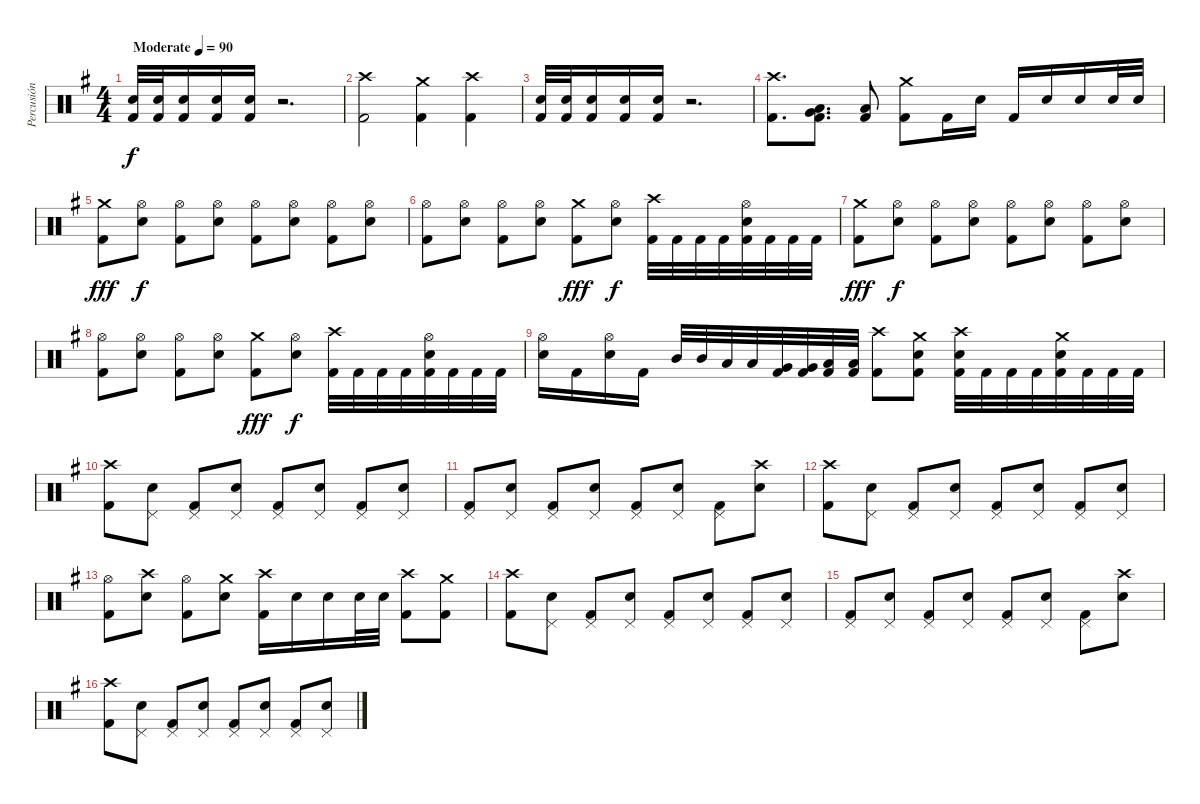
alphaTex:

\track ("Percusión" "Percusión") {instrument percussion}
\staff {score}
\articulation defaults
\ts (4 4)
\tempo (90 "Moderate")
\clef neutral
\ks g
("Electric Snare (hit)" "Kick (hit) 2").32{dy f} ("Electric Snare (hit)" "Kick (hit) 2").32 ("Electric Snare (hit)" "Kick (hit) 2").16 ("Electric Snare (hit)" "Kick (hit) 2").16 ("Electric Snare (hit)" "Kick (hit) 2").16 r.2{d} |
("Crash high (hit)" "Kick (hit) 2").2 ("Crash medium (hit)" "Kick (hit) 2").4 ("Crash high (hit)" "Kick (hit) 2").4 |
("Electric Snare (hit)" "Kick (hit) 2").32 ("Electric Snare (hit)" "Kick (hit) 2").32 ("Electric Snare (hit)" "Kick (hit) 2").16 ("Electric Snare (hit)" "Kick (hit) 2").16 ("Electric Snare (hit)" "Kick (hit) 2").16 r.2{d} |
("Crash high (hit)" "Kick (hit) 2").8{d} ("Very Low Tom (hit)" "Low Floor Tom (hit)" "Kick (hit) 2").8{d} ("Low Floor Tom (hit)" "Kick (hit) 2").8 ("Crash medium (hit)" "Kick (hit) 2").8 "Kick (hit) 2".16 "Electric Snare (hit)".16 "Kick (hit) 2".16 "Electric Snare (hit)".16 "Electric Snare (hit)".16 "Electric Snare (hit)".32 "Electric Snare (hit)".32 |
("Crash medium (hit)" "Kick (hit) 2").8{dy fff} ("Hi-Hat (open)" "Electric Snare (hit)").8{dy f} ("Hi-Hat (open)" "Kick (hit) 2").8 ("Hi-Hat (open)" "Electric Snare (hit)").8 ("Hi-Hat (open)" "Kick (hit) 2").8 ("Hi-Hat (open)" "Electric Snare (hit)").8 ("Hi-Hat (open)" "Kick (hit) 2").8 ("Hi-Hat (open)" "Electric Snare (hit)").8 |
("Hi-Hat (open)" "Kick (hit) 2").8 ("Hi-Hat (open)" "Electric Snare (hit)").8 ("Hi-Hat (open)" "Kick (hit) 2").8 ("Hi-Hat (open)" "Electric Snare (hit)").8 ("Crash medium (hit)" "Kick (hit) 2").8{dy fff} ("Hi-Hat (open)" "Electric Snare (hit)").8{dy f} ("Crash high (hit)" "Kick (hit) 2").32 "Kick (hit) 2".32 "Kick (hit) 2".32 "Kick (hit) 2".32 ("Hi-Hat (open)" "Electric Snare (hit)" "Kick (hit) 2").32 "Kick (hit) 2".32 "Kick (hit) 2".32 "Kick (hit) 2".32 |
("Crash medium (hit)" "Kick (hit) 2").8{dy fff} ("Hi-Hat (open)" "Electric Snare (hit)").8{dy f} ("Hi-Hat (open)" "Kick (hit) 2").8 ("Hi-Hat (open)" "Electric Snare (hit)").8 ("Hi-Hat (open)" "Kick (hit) 2").8 ("Hi-Hat (open)" "Electric Snare (hit)").8 ("Hi-Hat (open)" "Kick (hit) 2").8 ("Hi-Hat (open)" "Electric Snare (hit)").8 |
("Hi-Hat (open)" "Kick (hit) 2").8 ("Hi-Hat (open)" "Electric Snare (hit)").8 ("Hi-Hat (open)" "Kick (hit) 2").8 ("Hi-Hat (open)" "Electric Snare (hit)").8 ("Crash medium (hit)" "Kick (hit) 2").8{dy fff} ("Hi-Hat (open)" "Electric Snare (hit)").8{dy f} ("Crash high (hit)" "Kick (hit) 2").32 "Kick (hit) 2".32 "Kick (hit) 2".32 "Kick (hit) 2".32 ("Hi-Hat (open)" "Electric Snare (hit)" "Kick (hit) 2").32 "Kick (hit) 2".32 "Kick (hit) 2".32 "Kick (hit) 2".32 |
("Hi-Hat (open)" "Electric Snare (hit)").16 "Kick (hit) 2".16 ("Hi-Hat (open)" "Electric Snare (hit)").16 "Kick (hit) 2".16 "Mid Tom (hit)".32 "Mid Tom (hit)".32 "Low Tom (hit)".32 "Low Tom (hit)".32 ("Very Low Tom (hit)" "Kick (hit) 2").32 ("Very Low Tom (hit)" "Kick (hit) 2").32 ("Low Floor Tom (hit)" "Kick (hit) 2").32 ("Low Floor Tom (hit)" "Kick (hit) 2").32 ("Crash high (hit)" "Kick (hit) 2").8 ("Crash medium (hit)" "Electric Snare (hit)" "Kick (hit) 2").8 ("Crash high (hit)" "Electric Snare (hit)" "Kick (hit) 2").32 "Kick (hit) 2".32 "Kick (hit) 2".32 "Kick (hit) 2".32 ("Crash medium (hit)" "Electric Snare (hit)" "Kick (hit) 2").32 "Kick (hit) 2".32 "Kick (hit) 2".32 "Kick (hit) 2".32 |
("Crash high (hit)" "Kick (hit) 2").8 ("Pedal Hi-Hat (hit)" "Electric Snare (hit)").8 ("Pedal Hi-Hat (hit)" "Kick (hit) 2").8 ("Pedal Hi-Hat (hit)" "Electric Snare (hit)").8 ("Pedal Hi-Hat (hit)" "Kick (hit) 2").8 ("Pedal Hi-Hat (hit)" "Electric Snare (hit)").8 ("Pedal Hi-Hat (hit)" "Kick (hit) 2").8 ("Pedal Hi-Hat (hit)" "Electric Snare (hit)").8 |
("Pedal Hi-Hat (hit)" "Kick (hit) 2").8 ("Pedal Hi-Hat (hit)" "Electric Snare (hit)").8 ("Pedal Hi-Hat (hit)" "Kick (hit) 2").8 ("Pedal Hi-Hat (hit)" "Electric Snare (hit)").8 ("Pedal Hi-Hat (hit)" "Kick (hit) 2").8 ("Pedal Hi-Hat (hit)" "Electric Snare (hit)").8 ("Pedal Hi-Hat (hit)" "Kick (hit) 2").8 ("Crash high (hit)" "Electric Snare (hit)").8 |
("Crash high (hit)" "Kick (hit) 2").8 ("Pedal Hi-Hat (hit)" "Electric Snare (hit)").8 ("Pedal Hi-Hat (hit)" "Kick (hit) 2").8 ("Pedal Hi-Hat (hit)" "Electric Snare (hit)").8 ("Pedal Hi-Hat (hit)" "Kick (hit) 2").8 ("Pedal Hi-Hat (hit)" "Electric Snare (hit)").8 ("Pedal Hi-Hat (hit)" "Kick (hit) 2").8 ("Pedal Hi-Hat (hit)" "Electric Snare (hit)").8 |
("Hi-Hat (open)" "Kick (hit) 2").8 ("Crash high (hit)" "Electric Snare (hit)").8 ("Hi-Hat (open)" "Kick (hit) 2").8 ("Crash medium (hit)" "Electric Snare (hit)").8 ("Crash high (hit)" "Kick (hit) 2").16 "Electric Snare (hit)".16 "Electric Snare (hit)".16 "Electric Snare (hit)".32 "Electric Snare (hit)".32 ("Crash high (hit)" "Kick (hit) 2").8 ("Crash medium (hit)" "Kick (hit) 2").8 |
("Crash high (hit)" "Kick (hit) 2").8 ("Pedal Hi-Hat (hit)" "Electric Snare (hit)").8 ("Pedal Hi-Hat (hit)" "Kick (hit) 2").8 ("Pedal Hi-Hat (hit)" "Electric Snare (hit)").8 ("Pedal Hi-Hat (hit)" "Kick (hit) 2").8 ("Pedal Hi-Hat (hit)" "Electric Snare (hit)").8 ("Pedal Hi-Hat (hit)" "Kick (hit) 2").8 ("Pedal Hi-Hat (hit)" "Electric Snare (hit)").8 |
("Pedal Hi-Hat (hit)" "Kick (hit) 2").8 ("Pedal Hi-Hat (hit)" "Electric Snare (hit)").8 ("Pedal Hi-Hat (hit)" "Kick (hit) 2").8 ("Pedal Hi-Hat (hit)" "Electric Snare (hit)").8 ("Pedal Hi-Hat (hit)" "Kick (hit) 2").8 ("Pedal Hi-Hat (hit)" "Electric Snare (hit)").8 ("Pedal Hi-Hat (hit)" "Kick (hit) 2").8 ("Crash high (hit)" "Electric Snare (hit)").8 |
("Crash high (hit)" "Kick (hit) 2").8 ("Pedal Hi-Hat (hit)" "Electric Snare (hit)").8 ("Pedal Hi-Hat (hit)" "Kick (hit) 2").8 ("Pedal Hi-Hat (hit)" "Electric Snare (hit)").8 ("Pedal Hi-Hat (hit)" "Kick (hit) 2").8 ("Pedal Hi-Hat (hit)" "Electric Snare (hit)").8 ("Pedal Hi-Hat (hit)" "Kick (hit) 2").8 ("Pedal Hi-Hat (hit)" "Electric Snare (hit)").8
